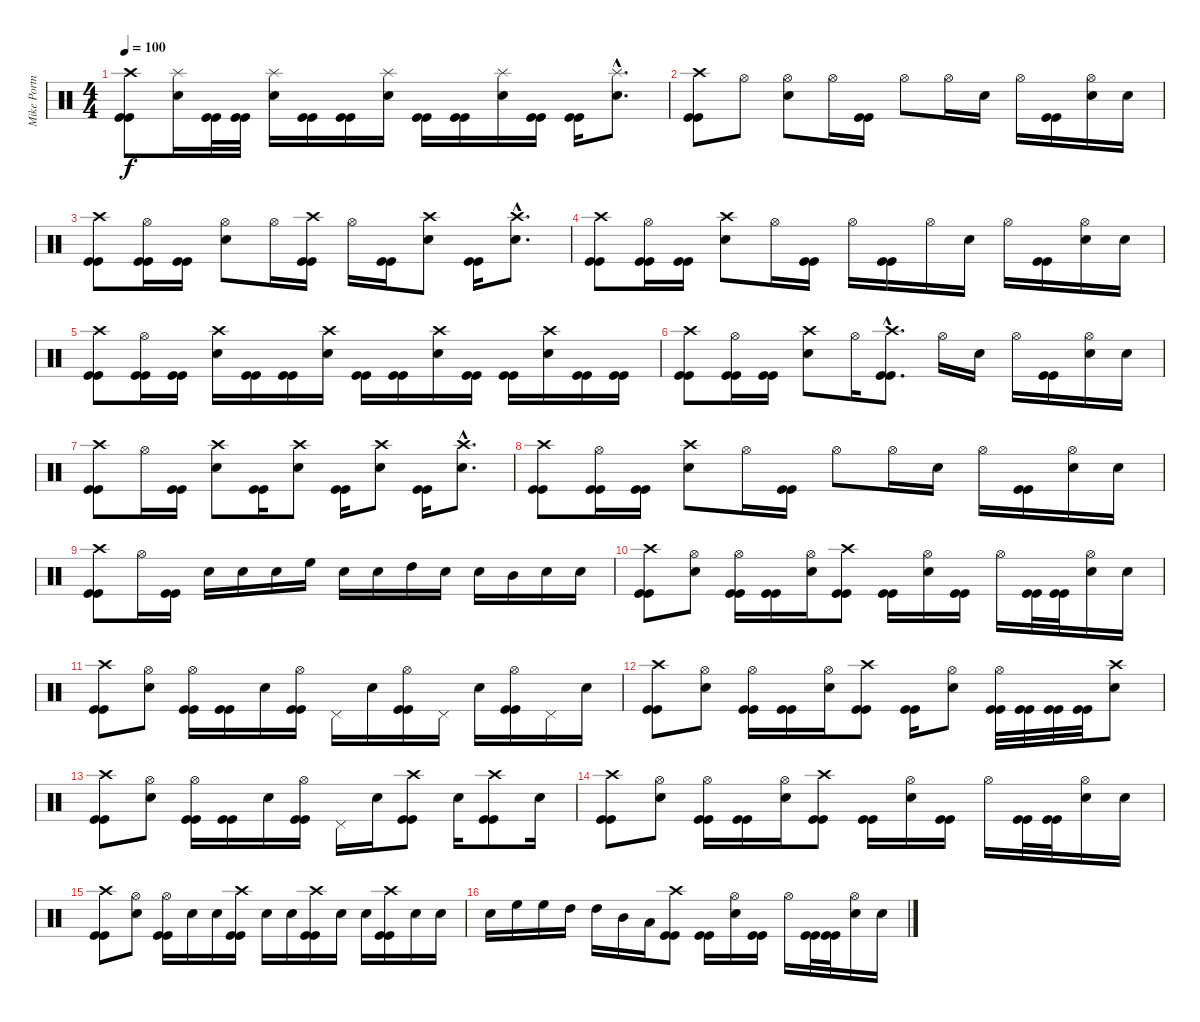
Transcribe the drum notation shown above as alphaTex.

\track ("Mike Portnoy - Drum" "Mike Portn") {instrument percussion}
\staff {score}
\articulation defaults
\ts (4 4)
\tempo 100
\clef neutral
\ks c
("Crash high (hit)" "Kick (hit)" "Kick (hit)").8{dy f} ("Splash (hit)" "Snare (hit) 2").16 ("Kick (hit)" "Kick (hit)").32 ("Kick (hit)" "Kick (hit)").32 ("Splash (hit)" "Snare (hit) 2").16 ("Kick (hit)" "Kick (hit)").16 ("Kick (hit)" "Kick (hit)").16 ("Splash (hit)" "Snare (hit) 2").16 ("Kick (hit)" "Kick (hit)").16 ("Kick (hit)" "Kick (hit)").16 ("Splash (hit)" "Snare (hit) 2").16 ("Kick (hit)" "Kick (hit)").16 ("Kick (hit)" "Kick (hit)").16 ("Splash (hit)"{hac} "Snare (hit) 2"{hac}).8{d} |
("Crash high (hit)" "Kick (hit)" "Kick (hit)").8 "Hi-Hat (open)".8 ("Hi-Hat (open)" "Snare (hit) 2").8 "Hi-Hat (open)".16 ("Kick (hit)" "Kick (hit)").16 "Hi-Hat (open)".8 "Hi-Hat (open)".16 "Snare (hit) 2".16 "Hi-Hat (open)".16 ("Kick (hit)" "Kick (hit)").16 ("Hi-Hat (open)" "Snare (hit) 2").16 "Snare (hit) 2".16 |
("Crash high (hit)" "Kick (hit)" "Kick (hit)").8 ("Hi-Hat (open)" "Kick (hit)" "Kick (hit)").16 ("Kick (hit)" "Kick (hit)").16 ("Hi-Hat (open)" "Snare (hit) 2").8 "Hi-Hat (open)".16 ("Crash high (hit)" "Kick (hit)" "Kick (hit)").16 "Hi-Hat (open)".16 ("Kick (hit)" "Kick (hit)").16 ("Crash high (hit)" "Snare (hit) 2").8 ("Kick (hit)" "Kick (hit)").16 ("Crash high (hit)"{hac} "Snare (hit) 2"{hac}).8{d} |
("Crash high (hit)" "Kick (hit)" "Kick (hit)").8 ("Hi-Hat (open)" "Kick (hit)" "Kick (hit)").16 ("Kick (hit)" "Kick (hit)").16 ("Crash high (hit)" "Snare (hit) 2").8 "Hi-Hat (open)".16 ("Kick (hit)" "Kick (hit)").16 "Hi-Hat (open)".16 ("Kick (hit)" "Kick (hit)").16 "Hi-Hat (open)".16 "Snare (hit) 2".16 "Hi-Hat (open)".16 ("Kick (hit)" "Kick (hit)").16 ("Hi-Hat (open)" "Snare (hit) 2").16 "Snare (hit) 2".16 |
("Crash high (hit)" "Kick (hit)" "Kick (hit)").8 ("Hi-Hat (open)" "Kick (hit)" "Kick (hit)").16 ("Kick (hit)" "Kick (hit)").16 ("Crash high (hit)" "Snare (hit) 2").16 ("Kick (hit)" "Kick (hit)").16 ("Kick (hit)" "Kick (hit)").16 ("Crash high (hit)" "Snare (hit) 2").16 ("Kick (hit)" "Kick (hit)").16 ("Kick (hit)" "Kick (hit)").16 ("Crash high (hit)" "Snare (hit) 2").16 ("Kick (hit)" "Kick (hit)").16 ("Kick (hit)" "Kick (hit)").16 ("Crash high (hit)" "Snare (hit) 2").16 ("Kick (hit)" "Kick (hit)").16 ("Kick (hit)" "Kick (hit)").16 |
("Crash high (hit)" "Kick (hit)" "Kick (hit)").8 ("Hi-Hat (open)" "Kick (hit)" "Kick (hit)").16 ("Kick (hit)" "Kick (hit)").16 ("Crash high (hit)" "Snare (hit) 2").8 "Hi-Hat (open)".16 ("Crash high (hit)"{hac} "Kick (hit)"{hac} "Kick (hit)"{hac}).8{d} "Hi-Hat (open)".16 "Snare (hit) 2".16 "Hi-Hat (open)".16 ("Kick (hit)" "Kick (hit)").16 ("Hi-Hat (open)" "Snare (hit) 2").16 "Snare (hit) 2".16 |
("Crash high (hit)" "Kick (hit)" "Kick (hit)").8 "Hi-Hat (open)".16 ("Kick (hit)" "Kick (hit)").16 ("Crash high (hit)" "Snare (hit) 2").8 ("Kick (hit)" "Kick (hit)").16 ("Crash high (hit)" "Snare (hit) 2").8 ("Kick (hit)" "Kick (hit)").16 ("Crash high (hit)" "Snare (hit) 2").8 ("Kick (hit)" "Kick (hit)").16 ("Crash high (hit)"{hac} "Snare (hit) 2"{hac}).8{d} |
("Crash high (hit)" "Kick (hit)" "Kick (hit)").8 ("Hi-Hat (open)" "Kick (hit)" "Kick (hit)").16 ("Kick (hit)" "Kick (hit)").16 ("Crash high (hit)" "Snare (hit) 2").8 "Hi-Hat (open)".16 ("Kick (hit)" "Kick (hit)").16 "Hi-Hat (open)".8 "Hi-Hat (open)".16 "Snare (hit) 2".16 "Hi-Hat (open)".16 ("Kick (hit)" "Kick (hit)").16 ("Hi-Hat (open)" "Snare (hit) 2").16 "Snare (hit) 2".16 |
("Crash high (hit)" "Kick (hit)" "Kick (hit)").8 "Hi-Hat (open)".16 ("Kick (hit)" "Kick (hit)").16 "Snare (hit) 2".16 "Snare (hit) 2".16 "Snare (hit) 2".16 "High Floor Tom (hit)".16 "Snare (hit) 2".16 "Snare (hit) 2".16 "High Tom (hit)".16 "Snare (hit) 2".16 "Snare (hit) 2".16 "Mid Tom (hit)".16 "Snare (hit) 2".16 "Snare (hit) 2".16 |
("Crash high (hit)" "Kick (hit)" "Kick (hit)").8 ("Hi-Hat (open)" "Snare (hit) 2").8 ("Hi-Hat (open)" "Kick (hit)" "Kick (hit)").16 ("Kick (hit)" "Kick (hit)").16 ("Hi-Hat (open)" "Snare (hit) 2").16 ("Crash high (hit)" "Kick (hit)" "Kick (hit)").8 ("Kick (hit)" "Kick (hit)").16 ("Hi-Hat (open)" "Snare (hit) 2").16 ("Kick (hit)" "Kick (hit)").16 "Hi-Hat (open)".16 ("Kick (hit)" "Kick (hit)").32 ("Kick (hit)" "Kick (hit)").32 ("Hi-Hat (open)" "Snare (hit) 2").16 "Snare (hit) 2".16 |
("Crash high (hit)" "Kick (hit)" "Kick (hit)").8 ("Hi-Hat (open)" "Snare (hit) 2").8 ("Hi-Hat (open)" "Kick (hit)" "Kick (hit)").16 ("Kick (hit)" "Kick (hit)").16 "Snare (hit) 2".16 ("Hi-Hat (open)" "Kick (hit)" "Kick (hit)").16 "Pedal Hi-Hat (hit)".16 "Snare (hit) 2".16 ("Hi-Hat (open)" "Kick (hit)" "Kick (hit)").16 "Pedal Hi-Hat (hit)".16 "Snare (hit) 2".16 ("Hi-Hat (open)" "Kick (hit)" "Kick (hit)").16 "Pedal Hi-Hat (hit)".16 "Snare (hit) 2".16 |
("Crash high (hit)" "Kick (hit)" "Kick (hit)").8 ("Hi-Hat (open)" "Snare (hit) 2").8 ("Hi-Hat (open)" "Kick (hit)" "Kick (hit)").16 ("Kick (hit)" "Kick (hit)").16 ("Hi-Hat (open)" "Snare (hit) 2").16 ("Crash high (hit)" "Kick (hit)" "Kick (hit)").8 ("Kick (hit)" "Kick (hit)").16 ("Hi-Hat (open)" "Snare (hit) 2").8 ("Hi-Hat (open)" "Kick (hit)" "Kick (hit)").32 ("Kick (hit)" "Kick (hit)").32 ("Kick (hit)" "Kick (hit)").32 ("Kick (hit)" "Kick (hit)").32 ("Crash high (hit)" "Snare (hit) 2").8 |
("Crash high (hit)" "Kick (hit)" "Kick (hit)").8 ("Hi-Hat (open)" "Snare (hit) 2").8 ("Hi-Hat (open)" "Kick (hit)" "Kick (hit)").16 ("Kick (hit)" "Kick (hit)").16 "Snare (hit) 2".16 ("Hi-Hat (open)" "Kick (hit)" "Kick (hit)").16 "Pedal Hi-Hat (hit)".16 "Snare (hit) 2".16 ("Crash high (hit)" "Kick (hit)" "Kick (hit)").8 "Snare (hit) 2".16 ("Crash high (hit)" "Kick (hit)" "Kick (hit)").8 "Snare (hit) 2".16 |
("Crash high (hit)" "Kick (hit)" "Kick (hit)").8 ("Hi-Hat (open)" "Snare (hit) 2").8 ("Hi-Hat (open)" "Kick (hit)" "Kick (hit)").16 ("Kick (hit)" "Kick (hit)").16 ("Hi-Hat (open)" "Snare (hit) 2").16 ("Crash high (hit)" "Kick (hit)" "Kick (hit)").8 ("Kick (hit)" "Kick (hit)").16 ("Hi-Hat (open)" "Snare (hit) 2").16 ("Kick (hit)" "Kick (hit)").16 "Hi-Hat (open)".16 ("Kick (hit)" "Kick (hit)").32 ("Kick (hit)" "Kick (hit)").32 ("Hi-Hat (open)" "Snare (hit) 2").16 "Snare (hit) 2".16 |
("Crash high (hit)" "Kick (hit)" "Kick (hit)").8 ("Hi-Hat (open)" "Snare (hit) 2").8 ("Hi-Hat (open)" "Kick (hit)" "Kick (hit)").16 "Snare (hit) 2".16 "Snare (hit) 2".16 ("Crash high (hit)" "Kick (hit)" "Kick (hit)").16 "Snare (hit) 2".16 "Snare (hit) 2".16 ("Crash high (hit)" "Kick (hit)" "Kick (hit)").16 "Snare (hit) 2".16 "Snare (hit) 2".16 ("Crash high (hit)" "Kick (hit)" "Kick (hit)").16 "Snare (hit) 2".16 "Snare (hit) 2".16 |
"Snare (hit) 2".16 "High Floor Tom (hit)".16 "High Floor Tom (hit)".16 "High Tom (hit)".16 "High Tom (hit)".16 "Mid Tom (hit)".16 "Low Tom (hit)".16 ("Crash high (hit)" "Kick (hit)" "Kick (hit)").8 ("Kick (hit)" "Kick (hit)").16 ("Hi-Hat (open)" "Snare (hit) 2").16 ("Kick (hit)" "Kick (hit)").16 "Hi-Hat (open)".16 ("Kick (hit)" "Kick (hit)").32 ("Kick (hit)" "Kick (hit)").32 ("Hi-Hat (open)" "Snare (hit) 2").16 "Snare (hit) 2".16
